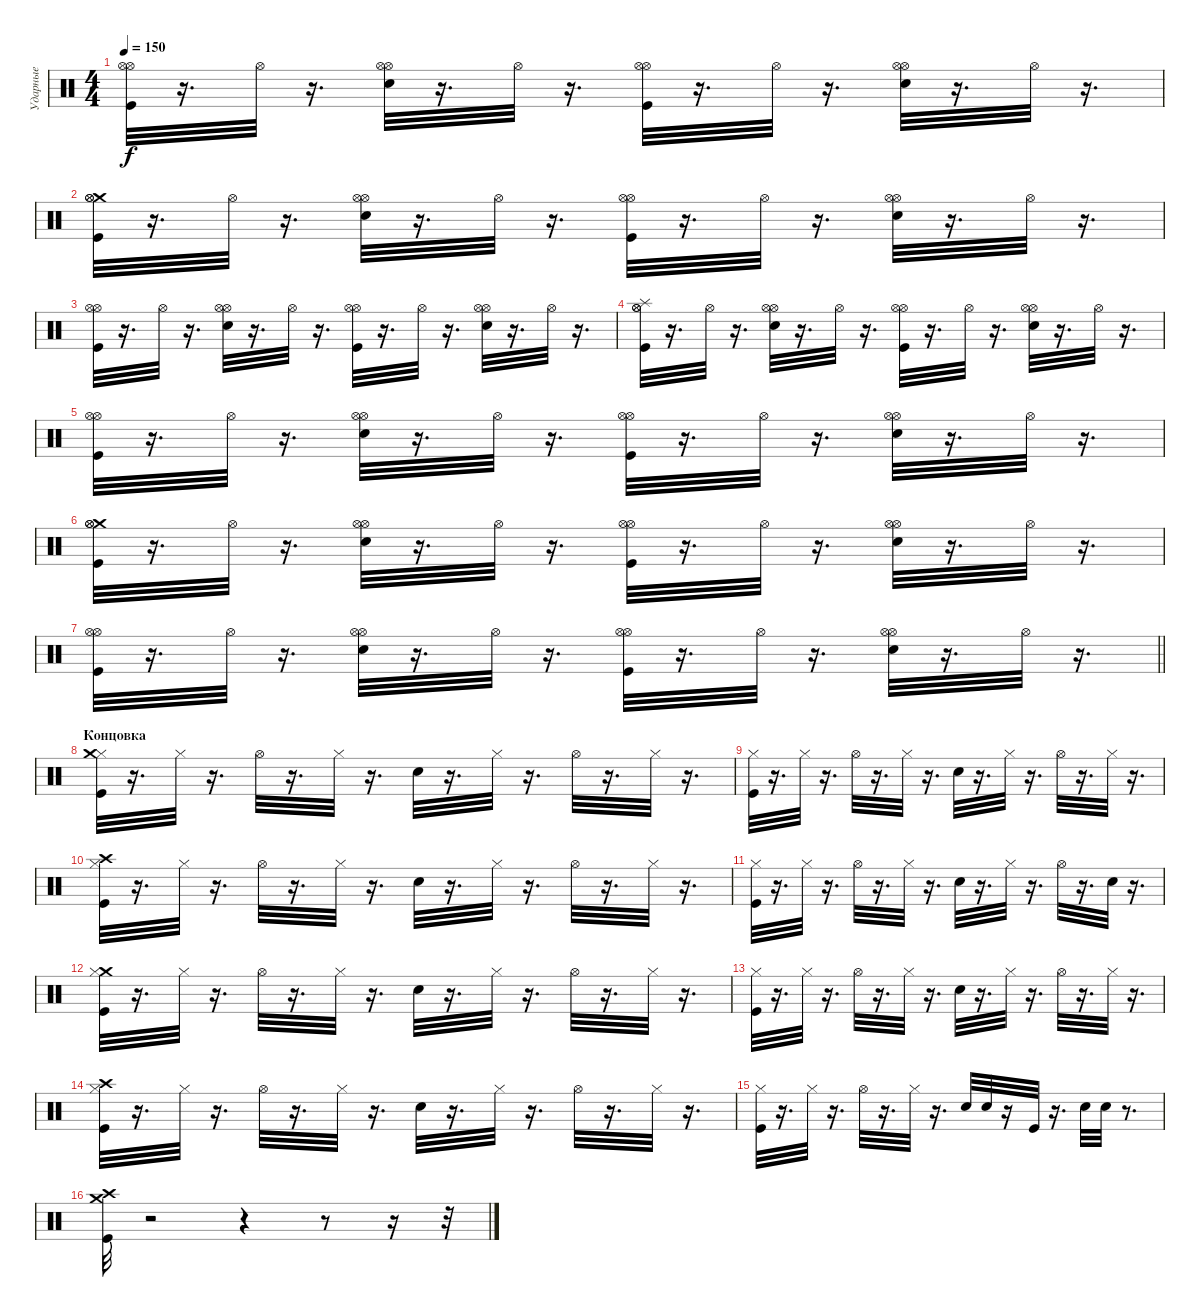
\track ("Ударные" "Ударные") {instrument percussion}
\staff {score}
\articulation defaults
\ts (4 4)
\tempo 150
\clef neutral
\ks c
("Hi-Hat (open)" "Hi-Hat (open)" "Kick (hit)").32{dy f} r.16{d} "Hi-Hat (open)".32 r.16{d} ("Snare (hit) 2" "Hi-Hat (open)" "Hi-Hat (open)").32 r.16{d} "Hi-Hat (open)".32 r.16{d} ("Kick (hit)" "Hi-Hat (open)" "Hi-Hat (open)").32 r.16{d} "Hi-Hat (open)".32 r.16{d} ("Hi-Hat (open)" "Hi-Hat (open)" "Snare (hit) 2").32 r.16{d} "Hi-Hat (open)".32 r.16{d} |
("Crash medium (hit)" "Hi-Hat (open)" "Kick (hit)" "Hi-Hat (open)").32 r.16{d} "Hi-Hat (open)".32 r.16{d} ("Hi-Hat (open)" "Snare (hit) 2" "Hi-Hat (open)").32 r.16{d} "Hi-Hat (open)".32 r.16{d} ("Kick (hit)" "Hi-Hat (open)" "Hi-Hat (open)").32 r.16{d} "Hi-Hat (open)".32 r.16{d} ("Hi-Hat (open)" "Hi-Hat (open)" "Snare (hit) 2").32 r.16{d} "Hi-Hat (open)".32 r.16{d} |
("Kick (hit)" "Hi-Hat (open)" "Hi-Hat (open)").32 r.16{d} "Hi-Hat (open)".32 r.16{d} ("Snare (hit) 2" "Hi-Hat (open)" "Hi-Hat (open)").32 r.16{d} "Hi-Hat (open)".32 r.16{d} ("Kick (hit)" "Hi-Hat (open)" "Hi-Hat (open)").32 r.16{d} "Hi-Hat (open)".32 r.16{d} ("Hi-Hat (open)" "Snare (hit) 2" "Hi-Hat (open)").32 r.16{d} "Hi-Hat (open)".32 r.16{d} |
("Splash (hit)" "Hi-Hat (open)" "Kick (hit)" "Hi-Hat (open)").32 r.16{d} "Hi-Hat (open)".32 r.16{d} ("Hi-Hat (open)" "Hi-Hat (open)" "Snare (hit) 2").32 r.16{d} "Hi-Hat (open)".32 r.16{d} ("Hi-Hat (open)" "Hi-Hat (open)" "Kick (hit)").32 r.16{d} "Hi-Hat (open)".32 r.16{d} ("Snare (hit) 2" "Hi-Hat (open)" "Hi-Hat (open)").32 r.16{d} "Hi-Hat (open)".32 r.16{d} |
("Kick (hit)" "Hi-Hat (open)" "Hi-Hat (open)").32 r.16{d} "Hi-Hat (open)".32 r.16{d} ("Snare (hit) 2" "Hi-Hat (open)" "Hi-Hat (open)").32 r.16{d} "Hi-Hat (open)".32 r.16{d} ("Hi-Hat (open)" "Kick (hit)" "Hi-Hat (open)").32 r.16{d} "Hi-Hat (open)".32 r.16{d} ("Hi-Hat (open)" "Snare (hit) 2" "Hi-Hat (open)").32 r.16{d} "Hi-Hat (open)".32 r.16{d} |
("Crash medium (hit)" "Kick (hit)" "Hi-Hat (open)" "Hi-Hat (open)").32 r.16{d} "Hi-Hat (open)".32 r.16{d} ("Hi-Hat (open)" "Hi-Hat (open)" "Snare (hit) 2").32 r.16{d} "Hi-Hat (open)".32 r.16{d} ("Kick (hit)" "Hi-Hat (open)" "Hi-Hat (open)").32 r.16{d} "Hi-Hat (open)".32 r.16{d} ("Snare (hit) 2" "Hi-Hat (open)" "Hi-Hat (open)").32 r.16{d} "Hi-Hat (open)".32 r.16{d} |
\barLineRight lightlight
("Kick (hit)" "Hi-Hat (open)" "Hi-Hat (open)").32 r.16{d} "Hi-Hat (open)".32 r.16{d} ("Hi-Hat (open)" "Snare (hit) 2" "Hi-Hat (open)").32 r.16{d} "Hi-Hat (open)".32 r.16{d} ("Kick (hit)" "Hi-Hat (open)" "Hi-Hat (open)").32 r.16{d} "Hi-Hat (open)".32 r.16{d} ("Snare (hit) 2" "Hi-Hat (open)" "Hi-Hat (open)").32 r.16{d} "Hi-Hat (open)".32 r.16{d} |
\section ("" "Концовка")
("Hi-Hat (closed)" "Kick (hit)" "Crash medium (hit)").32 r.16{d} "Hi-Hat (closed)".32 r.16{d} "Hi-Hat (open)".32 r.16{d} "Hi-Hat (closed)".32 r.16{d} "Snare (hit) 2".32 r.16{d} "Hi-Hat (closed)".32 r.16{d} "Hi-Hat (open)".32 r.16{d} "Hi-Hat (closed)".32 r.16{d} |
("Hi-Hat (closed)" "Kick (hit)").32 r.16{d} "Hi-Hat (closed)".32 r.16{d} "Hi-Hat (open)".32 r.16{d} "Hi-Hat (closed)".32 r.16{d} "Snare (hit) 2".32 r.16{d} "Hi-Hat (closed)".32 r.16{d} "Hi-Hat (open)".32 r.16{d} "Hi-Hat (closed)".32 r.16{d} |
("Hi-Hat (closed)" "Crash high (hit)" "Kick (hit)").32 r.16{d} "Hi-Hat (closed)".32 r.16{d} "Hi-Hat (open)".32 r.16{d} "Hi-Hat (closed)".32 r.16{d} "Snare (hit) 2".32 r.16{d} "Hi-Hat (closed)".32 r.16{d} "Hi-Hat (open)".32 r.16{d} "Hi-Hat (closed)".32 r.16{d} |
("Hi-Hat (closed)" "Kick (hit)").32 r.16{d} "Hi-Hat (closed)".32 r.16{d} "Hi-Hat (open)".32 r.16{d} "Hi-Hat (closed)".32 r.16{d} "Snare (hit) 2".32 r.16{d} "Hi-Hat (closed)".32 r.16{d} "Hi-Hat (open)".32 r.16{d} "Snare (hit) 2".32 r.16{d} |
("Crash medium (hit)" "Hi-Hat (closed)" "Kick (hit)").32 r.16{d} "Hi-Hat (closed)".32 r.16{d} "Hi-Hat (open)".32 r.16{d} "Hi-Hat (closed)".32 r.16{d} "Snare (hit) 2".32 r.16{d} "Hi-Hat (closed)".32 r.16{d} "Hi-Hat (open)".32 r.16{d} "Hi-Hat (closed)".32 r.16{d} |
("Hi-Hat (closed)" "Kick (hit)").32 r.16{d} "Hi-Hat (closed)".32 r.16{d} "Hi-Hat (open)".32 r.16{d} "Hi-Hat (closed)".32 r.16{d} "Snare (hit) 2".32 r.16{d} "Hi-Hat (closed)".32 r.16{d} "Hi-Hat (open)".32 r.16{d} "Hi-Hat (closed)".32 r.16{d} |
("Crash high (hit)" "Hi-Hat (closed)" "Kick (hit)").32 r.16{d} "Hi-Hat (closed)".32 r.16{d} "Hi-Hat (open)".32 r.16{d} "Hi-Hat (closed)".32 r.16{d} "Snare (hit) 2".32 r.16{d} "Hi-Hat (closed)".32 r.16{d} "Hi-Hat (open)".32 r.16{d} "Hi-Hat (closed)".32 r.16{d} |
("Hi-Hat (closed)" "Kick (hit)").32 r.16{d} "Hi-Hat (closed)".32 r.16{d} "Hi-Hat (open)".32 r.16{d} "Hi-Hat (closed)".32 r.16{d} "Snare (hit) 2".32 "Snare (hit) 2".32 r.16 "Kick (hit)".32 r.16{d} "Snare (hit) 2".32 "Snare (hit) 2".32 r.8{d} |
("Crash medium (hit)" "Kick (hit)" "Crash high (hit)").32 r.2 r.4 r.8 r.16 r.32
